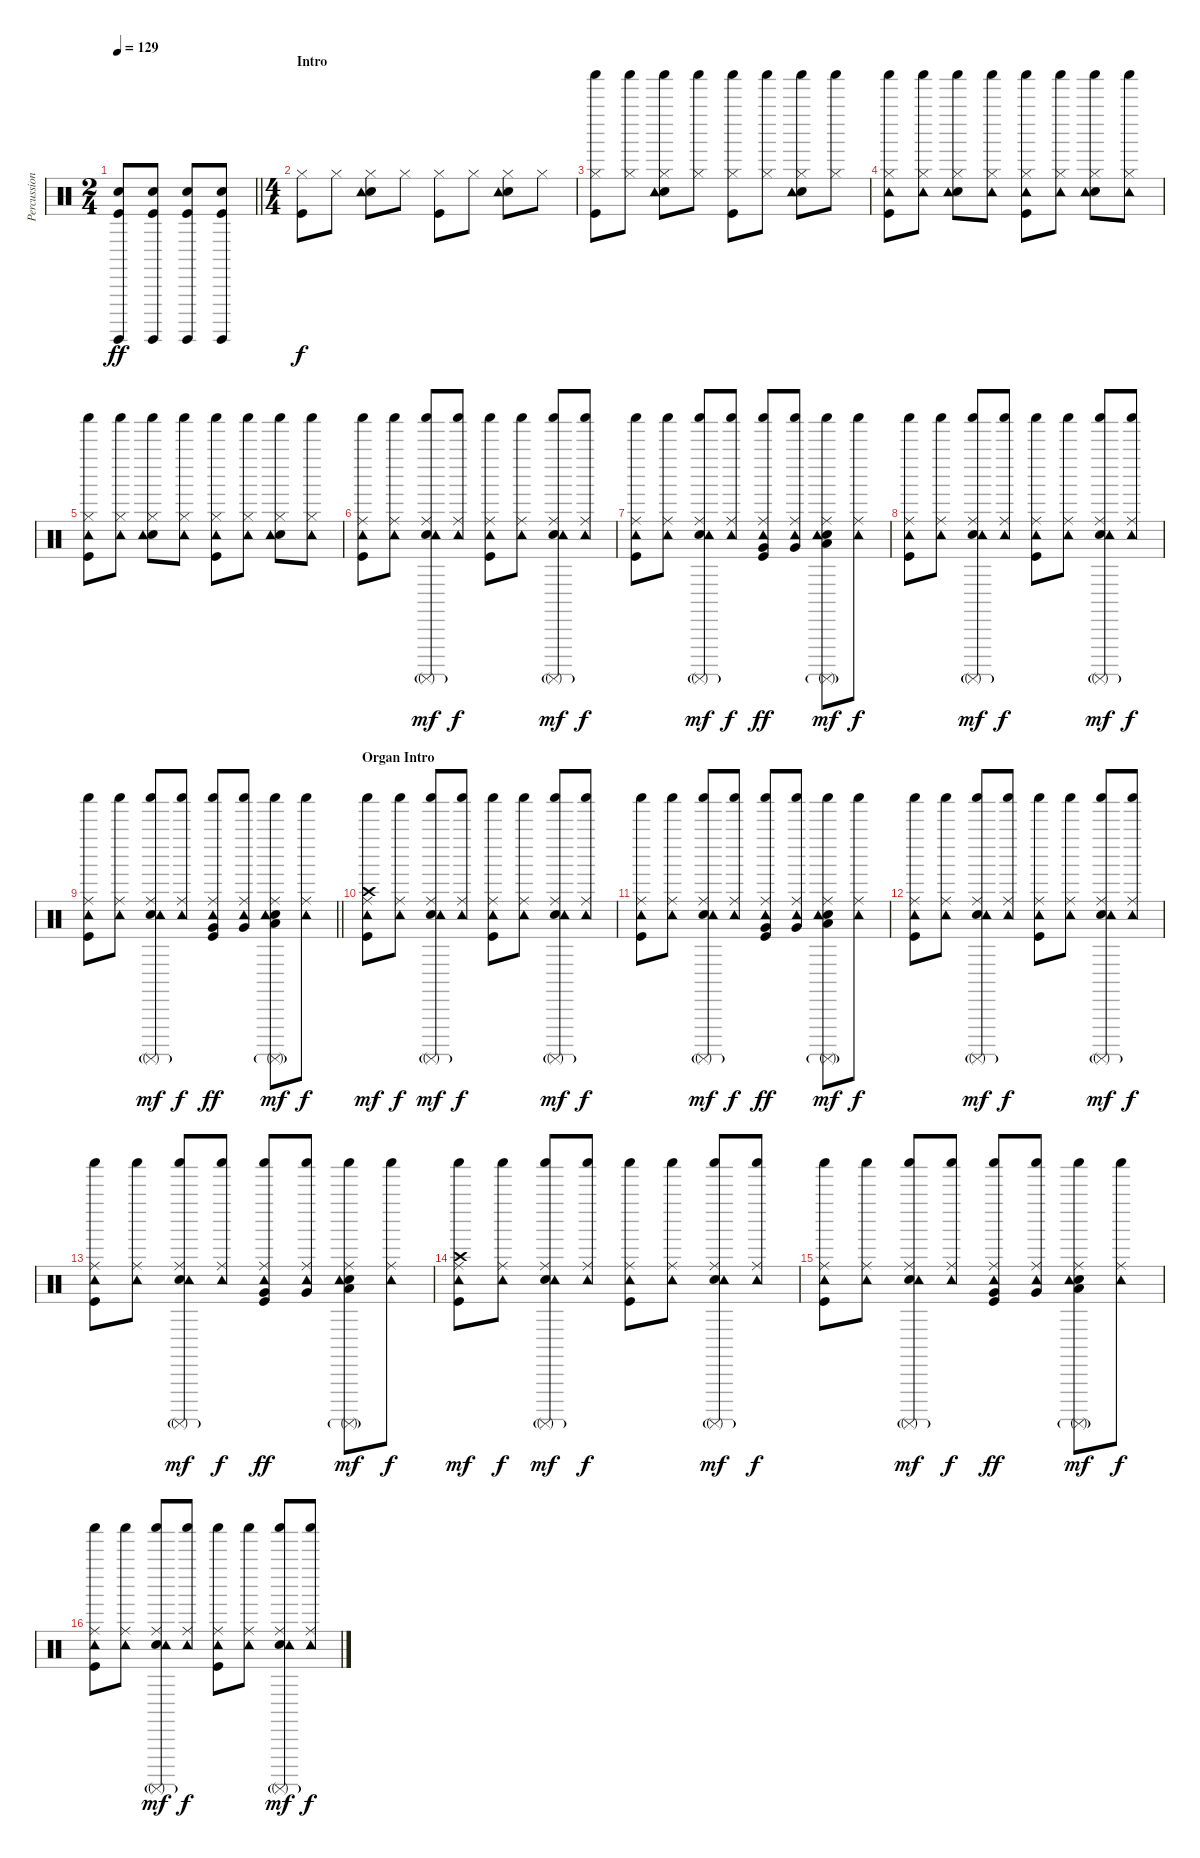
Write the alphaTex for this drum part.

\track ("Percussion" "Percussion") {instrument percussion}
\staff {score}
\articulation defaults
\ts (2 4)
\tempo 129
\clef neutral
\barLineRight lightlight
\ks c
("Hand Clap (hit)" "Surdo (hit)" "Kick (hit)").8{dy ff} ("Hand Clap (hit)" "Surdo (hit)" "Kick (hit)").8 ("Hand Clap (hit)" "Surdo (hit)" "Kick (hit)").8 ("Hand Clap (hit)" "Surdo (hit)" "Kick (hit)").8 |
\ts (4 4)
\section ("" "Intro")
("Hi-Hat (closed)" "Kick (hit)").8{dy f} "Hi-Hat (closed)".8 ("Hi-Hat (closed)" "Snare (hit) 2" "Tambourine (hit)").8 "Hi-Hat (closed)".8 ("Hi-Hat (closed)" "Kick (hit)").8 "Hi-Hat (closed)".8 ("Hi-Hat (closed)" "Snare (hit) 2" "Tambourine (hit)").8 "Hi-Hat (closed)".8 |
("Shaker (hit)" "Hi-Hat (closed)" "Kick (hit)").8 ("Shaker (hit)" "Hi-Hat (closed)").8 ("Shaker (hit)" "Hi-Hat (closed)" "Snare (hit) 2" "Tambourine (hit)").8 ("Shaker (hit)" "Hi-Hat (closed)").8 ("Shaker (hit)" "Hi-Hat (closed)" "Kick (hit)").8 ("Shaker (hit)" "Hi-Hat (closed)").8 ("Shaker (hit)" "Hi-Hat (closed)" "Snare (hit) 2" "Tambourine (hit)").8 ("Shaker (hit)" "Hi-Hat (closed)").8 |
("Shaker (hit)" "Hi-Hat (closed)" "Tambourine (hit)" "Kick (hit)").8 ("Shaker (hit)" "Hi-Hat (closed)" "Tambourine (hit)").8 ("Shaker (hit)" "Hi-Hat (closed)" "Snare (hit) 2" "Tambourine (hit)").8 ("Shaker (hit)" "Hi-Hat (closed)" "Tambourine (hit)").8 ("Shaker (hit)" "Hi-Hat (closed)" "Tambourine (hit)" "Kick (hit)").8 ("Shaker (hit)" "Hi-Hat (closed)" "Tambourine (hit)").8 ("Shaker (hit)" "Hi-Hat (closed)" "Snare (hit) 2" "Tambourine (hit)").8 ("Shaker (hit)" "Hi-Hat (closed)" "Tambourine (hit)").8 |
("Shaker (hit)" "Hi-Hat (closed)" "Tambourine (hit)" "Kick (hit)").8 ("Shaker (hit)" "Hi-Hat (closed)" "Tambourine (hit)").8 ("Shaker (hit)" "Hi-Hat (closed)" "Snare (hit) 2" "Tambourine (hit)").8 ("Shaker (hit)" "Hi-Hat (closed)" "Tambourine (hit)").8 ("Shaker (hit)" "Hi-Hat (closed)" "Tambourine (hit)" "Kick (hit)").8 ("Shaker (hit)" "Hi-Hat (closed)" "Tambourine (hit)").8 ("Shaker (hit)" "Hi-Hat (closed)" "Snare (hit) 2" "Tambourine (hit)").8 ("Shaker (hit)" "Hi-Hat (closed)" "Tambourine (hit)").8 |
("Shaker (hit)" "Ride (middle)" "Tambourine (hit)" "Kick (hit)").8 ("Shaker (hit)" "Ride (middle)" "Tambourine (hit)").8 ("Shaker (hit)" "Ride (middle)" "Snare (hit) 2" "Tambourine (hit)" "Surdo (mute)"{g}).8{dy mf} ("Shaker (hit)" "Ride (middle)" "Tambourine (hit)").8{dy f} ("Shaker (hit)" "Ride (middle)" "Tambourine (hit)" "Kick (hit)").8 ("Shaker (hit)" "Ride (middle)" "Tambourine (hit)").8 ("Shaker (hit)" "Ride (middle)" "Snare (hit) 2" "Tambourine (hit)" "Surdo (mute)"{g}).8{dy mf} ("Shaker (hit)" "Ride (middle)" "Tambourine (hit)").8{dy f} |
("Shaker (hit)" "Ride (middle)" "Tambourine (hit)" "Kick (hit)").8 ("Shaker (hit)" "Ride (middle)" "Tambourine (hit)").8 ("Shaker (hit)" "Ride (middle)" "Snare (hit) 2" "Tambourine (hit)" "Surdo (mute)"{g}).8{dy mf} ("Shaker (hit)" "Ride (middle)" "Tambourine (hit)").8{dy f} ("Very Low Tom (hit)" "Shaker (hit)" "Ride (middle)" "Tambourine (hit)" "Kick (hit)").8{dy ff} ("Very Low Tom (hit)" "Shaker (hit)" "Ride (middle)" "Tambourine (hit)").8 ("Low Floor Tom (hit)" "Shaker (hit)" "Ride (middle)" "Snare (hit) 2" "Tambourine (hit)" "Surdo (mute)"{g}).8{dy mf} ("Shaker (hit)" "Ride (middle)" "Tambourine (hit)").8{dy f} |
("Shaker (hit)" "Ride (middle)" "Tambourine (hit)" "Kick (hit)").8 ("Shaker (hit)" "Ride (middle)" "Tambourine (hit)").8 ("Shaker (hit)" "Ride (middle)" "Snare (hit) 2" "Tambourine (hit)" "Surdo (mute)"{g}).8{dy mf} ("Shaker (hit)" "Ride (middle)" "Tambourine (hit)").8{dy f} ("Shaker (hit)" "Ride (middle)" "Tambourine (hit)" "Kick (hit)").8 ("Shaker (hit)" "Ride (middle)" "Tambourine (hit)").8 ("Shaker (hit)" "Ride (middle)" "Snare (hit) 2" "Tambourine (hit)" "Surdo (mute)"{g}).8{dy mf} ("Shaker (hit)" "Ride (middle)" "Tambourine (hit)").8{dy f} |
\barLineRight lightlight
("Shaker (hit)" "Ride (middle)" "Tambourine (hit)" "Kick (hit)").8 ("Shaker (hit)" "Ride (middle)" "Tambourine (hit)").8 ("Shaker (hit)" "Ride (middle)" "Snare (hit) 2" "Tambourine (hit)" "Surdo (mute)"{g}).8{dy mf} ("Shaker (hit)" "Ride (middle)" "Tambourine (hit)").8{dy f} ("Very Low Tom (hit)" "Shaker (hit)" "Ride (middle)" "Tambourine (hit)" "Kick (hit)").8{dy ff} ("Very Low Tom (hit)" "Shaker (hit)" "Ride (middle)" "Tambourine (hit)").8 ("Low Floor Tom (hit)" "Shaker (hit)" "Ride (middle)" "Snare (hit) 2" "Tambourine (hit)" "Surdo (mute)"{g}).8{dy mf} ("Shaker (hit)" "Ride (middle)" "Tambourine (hit)").8{dy f} |
\section ("" "Organ Intro")
("Crash high (hit)" "Shaker (hit)" "Ride (middle)" "Tambourine (hit)" "Kick (hit)").8{dy mf} ("Shaker (hit)" "Ride (middle)" "Tambourine (hit)").8{dy f} ("Shaker (hit)" "Ride (middle)" "Snare (hit) 2" "Tambourine (hit)" "Surdo (mute)"{g}).8{dy mf} ("Shaker (hit)" "Ride (middle)" "Tambourine (hit)").8{dy f} ("Shaker (hit)" "Ride (middle)" "Tambourine (hit)" "Kick (hit)").8 ("Shaker (hit)" "Ride (middle)" "Tambourine (hit)").8 ("Shaker (hit)" "Ride (middle)" "Snare (hit) 2" "Tambourine (hit)" "Surdo (mute)"{g}).8{dy mf} ("Shaker (hit)" "Ride (middle)" "Tambourine (hit)").8{dy f} |
("Shaker (hit)" "Ride (middle)" "Tambourine (hit)" "Kick (hit)").8 ("Shaker (hit)" "Ride (middle)" "Tambourine (hit)").8 ("Shaker (hit)" "Ride (middle)" "Snare (hit) 2" "Tambourine (hit)" "Surdo (mute)"{g}).8{dy mf} ("Shaker (hit)" "Ride (middle)" "Tambourine (hit)").8{dy f} ("Very Low Tom (hit)" "Shaker (hit)" "Ride (middle)" "Tambourine (hit)" "Kick (hit)").8{dy ff} ("Very Low Tom (hit)" "Shaker (hit)" "Ride (middle)" "Tambourine (hit)").8 ("Low Floor Tom (hit)" "Shaker (hit)" "Ride (middle)" "Snare (hit) 2" "Tambourine (hit)" "Surdo (mute)"{g}).8{dy mf} ("Shaker (hit)" "Ride (middle)" "Tambourine (hit)").8{dy f} |
("Shaker (hit)" "Ride (middle)" "Tambourine (hit)" "Kick (hit)").8 ("Shaker (hit)" "Ride (middle)" "Tambourine (hit)").8 ("Shaker (hit)" "Ride (middle)" "Snare (hit) 2" "Tambourine (hit)" "Surdo (mute)"{g}).8{dy mf} ("Shaker (hit)" "Ride (middle)" "Tambourine (hit)").8{dy f} ("Shaker (hit)" "Ride (middle)" "Tambourine (hit)" "Kick (hit)").8 ("Shaker (hit)" "Ride (middle)" "Tambourine (hit)").8 ("Shaker (hit)" "Ride (middle)" "Snare (hit) 2" "Tambourine (hit)" "Surdo (mute)"{g}).8{dy mf} ("Shaker (hit)" "Ride (middle)" "Tambourine (hit)").8{dy f} |
("Shaker (hit)" "Ride (middle)" "Tambourine (hit)" "Kick (hit)").8 ("Shaker (hit)" "Ride (middle)" "Tambourine (hit)").8 ("Shaker (hit)" "Ride (middle)" "Snare (hit) 2" "Tambourine (hit)" "Surdo (mute)"{g}).8{dy mf} ("Shaker (hit)" "Ride (middle)" "Tambourine (hit)").8{dy f} ("Very Low Tom (hit)" "Shaker (hit)" "Ride (middle)" "Tambourine (hit)" "Kick (hit)").8{dy ff} ("Very Low Tom (hit)" "Shaker (hit)" "Ride (middle)" "Tambourine (hit)").8 ("Low Floor Tom (hit)" "Shaker (hit)" "Ride (middle)" "Snare (hit) 2" "Tambourine (hit)" "Surdo (mute)"{g}).8{dy mf} ("Shaker (hit)" "Ride (middle)" "Tambourine (hit)").8{dy f} |
("Crash high (hit)" "Shaker (hit)" "Ride (middle)" "Tambourine (hit)" "Kick (hit)").8{dy mf} ("Shaker (hit)" "Ride (middle)" "Tambourine (hit)").8{dy f} ("Shaker (hit)" "Ride (middle)" "Snare (hit) 2" "Tambourine (hit)" "Surdo (mute)"{g}).8{dy mf} ("Shaker (hit)" "Ride (middle)" "Tambourine (hit)").8{dy f} ("Shaker (hit)" "Ride (middle)" "Tambourine (hit)" "Kick (hit)").8 ("Shaker (hit)" "Ride (middle)" "Tambourine (hit)").8 ("Shaker (hit)" "Ride (middle)" "Snare (hit) 2" "Tambourine (hit)" "Surdo (mute)"{g}).8{dy mf} ("Shaker (hit)" "Ride (middle)" "Tambourine (hit)").8{dy f} |
("Shaker (hit)" "Ride (middle)" "Tambourine (hit)" "Kick (hit)").8 ("Shaker (hit)" "Ride (middle)" "Tambourine (hit)").8 ("Shaker (hit)" "Ride (middle)" "Snare (hit) 2" "Tambourine (hit)" "Surdo (mute)"{g}).8{dy mf} ("Shaker (hit)" "Ride (middle)" "Tambourine (hit)").8{dy f} ("Very Low Tom (hit)" "Shaker (hit)" "Ride (middle)" "Tambourine (hit)" "Kick (hit)").8{dy ff} ("Very Low Tom (hit)" "Shaker (hit)" "Ride (middle)" "Tambourine (hit)").8 ("Low Floor Tom (hit)" "Shaker (hit)" "Ride (middle)" "Snare (hit) 2" "Tambourine (hit)" "Surdo (mute)"{g}).8{dy mf} ("Shaker (hit)" "Ride (middle)" "Tambourine (hit)").8{dy f} |
("Shaker (hit)" "Ride (middle)" "Tambourine (hit)" "Kick (hit)").8 ("Shaker (hit)" "Ride (middle)" "Tambourine (hit)").8 ("Shaker (hit)" "Ride (middle)" "Snare (hit) 2" "Tambourine (hit)" "Surdo (mute)"{g}).8{dy mf} ("Shaker (hit)" "Ride (middle)" "Tambourine (hit)").8{dy f} ("Shaker (hit)" "Ride (middle)" "Tambourine (hit)" "Kick (hit)").8 ("Shaker (hit)" "Ride (middle)" "Tambourine (hit)").8 ("Shaker (hit)" "Ride (middle)" "Snare (hit) 2" "Tambourine (hit)" "Surdo (mute)"{g}).8{dy mf} ("Shaker (hit)" "Ride (middle)" "Tambourine (hit)").8{dy f}
